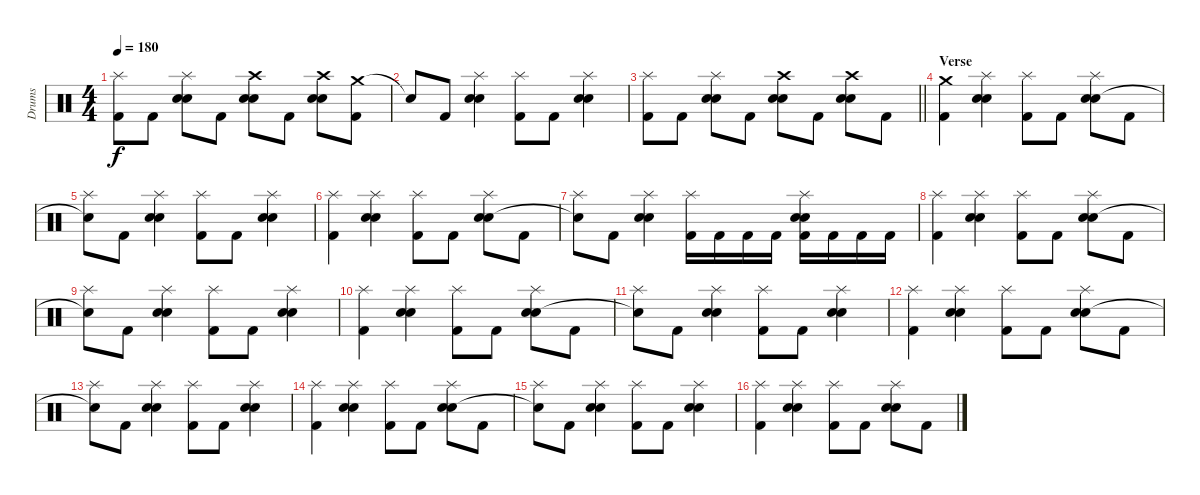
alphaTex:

\track ("Drums" "Drums") {instrument percussion}
\staff {score}
\articulation defaults
\ts (4 4)
\tempo 180
\clef neutral
\ks c
("Splash (hit)" "Kick (hit) 2").8{dy f} "Kick (hit) 2".8 ("Splash (hit)" "Electric Snare (hit)" "Snare (hit) 2").8 "Kick (hit) 2".8 ("Crash high (hit)" "Electric Snare (hit)" "Snare (hit) 2").8 "Kick (hit) 2".8 ("Crash high (hit)" "Electric Snare (hit)" "Snare (hit) 2").8 ("Crash medium (hit)" "Kick (hit) 2").8 |
"Snare (hit)"{t}.8 "Kick (hit) 2".8 ("Splash (hit)" "Electric Snare (hit)" "Snare (hit) 2").4 ("Splash (hit)" "Kick (hit) 2").8 "Kick (hit) 2".8 ("Splash (hit)" "Electric Snare (hit)" "Snare (hit) 2").4 |
\barLineRight lightlight
("Splash (hit)" "Kick (hit) 2").8 "Kick (hit) 2".8 ("Splash (hit)" "Electric Snare (hit)" "Snare (hit) 2").8 "Kick (hit) 2".8 ("Crash high (hit)" "Electric Snare (hit)" "Snare (hit) 2").8 "Kick (hit) 2".8 ("Crash high (hit)" "Electric Snare (hit)" "Snare (hit) 2").8 "Kick (hit) 2".8 |
\section ("" "Verse")
("Crash medium (hit)" "Kick (hit) 2").4 ("Splash (hit)" "Electric Snare (hit)" "Snare (hit) 2").4 ("Splash (hit)" "Kick (hit) 2").8 "Kick (hit) 2".8 ("Splash (hit)" "Electric Snare (hit)" "Snare (hit) 2").8 "Kick (hit) 2".8 |
("Splash (hit)" "Snare (hit)"{t}).8 "Kick (hit) 2".8 ("Splash (hit)" "Electric Snare (hit)" "Snare (hit) 2").4 ("Splash (hit)" "Kick (hit) 2").8 "Kick (hit) 2".8 ("Splash (hit)" "Electric Snare (hit)" "Snare (hit) 2").4 |
("Splash (hit)" "Kick (hit) 2").4 ("Splash (hit)" "Electric Snare (hit)" "Snare (hit) 2").4 ("Splash (hit)" "Kick (hit) 2").8 "Kick (hit) 2".8 ("Splash (hit)" "Electric Snare (hit)" "Snare (hit) 2").8 "Kick (hit) 2".8 |
("Splash (hit)" "Snare (hit)"{t}).8 "Kick (hit) 2".8 ("Splash (hit)" "Electric Snare (hit)" "Snare (hit) 2").4 ("Splash (hit)" "Kick (hit) 2").16 "Kick (hit) 2".16 "Kick (hit) 2".16 "Kick (hit) 2".16 ("Splash (hit)" "Electric Snare (hit)" "Snare (hit) 2" "Kick (hit) 2").16 "Kick (hit) 2".16 "Kick (hit) 2".16 "Kick (hit) 2".16 |
("Splash (hit)" "Kick (hit) 2").4 ("Splash (hit)" "Electric Snare (hit)" "Snare (hit) 2").4 ("Splash (hit)" "Kick (hit) 2").8 "Kick (hit) 2".8 ("Splash (hit)" "Electric Snare (hit)" "Snare (hit) 2").8 "Kick (hit) 2".8 |
("Splash (hit)" "Snare (hit)"{t}).8 "Kick (hit) 2".8 ("Splash (hit)" "Electric Snare (hit)" "Snare (hit) 2").4 ("Splash (hit)" "Kick (hit) 2").8 "Kick (hit) 2".8 ("Splash (hit)" "Electric Snare (hit)" "Snare (hit) 2").4 |
("Splash (hit)" "Kick (hit) 2").4 ("Splash (hit)" "Electric Snare (hit)" "Snare (hit) 2").4 ("Splash (hit)" "Kick (hit) 2").8 "Kick (hit) 2".8 ("Splash (hit)" "Electric Snare (hit)" "Snare (hit) 2").8 "Kick (hit) 2".8 |
("Splash (hit)" "Snare (hit)"{t}).8 "Kick (hit) 2".8 ("Splash (hit)" "Electric Snare (hit)" "Snare (hit) 2").4 ("Splash (hit)" "Kick (hit) 2").8 "Kick (hit) 2".8 ("Splash (hit)" "Electric Snare (hit)" "Snare (hit) 2").4 |
("Splash (hit)" "Kick (hit) 2").4 ("Splash (hit)" "Electric Snare (hit)" "Snare (hit) 2").4 ("Splash (hit)" "Kick (hit) 2").8 "Kick (hit) 2".8 ("Splash (hit)" "Electric Snare (hit)" "Snare (hit) 2").8 "Kick (hit) 2".8 |
("Splash (hit)" "Snare (hit)"{t}).8 "Kick (hit) 2".8 ("Splash (hit)" "Electric Snare (hit)" "Snare (hit) 2").4 ("Splash (hit)" "Kick (hit) 2").8 "Kick (hit) 2".8 ("Splash (hit)" "Electric Snare (hit)" "Snare (hit) 2").4 |
("Splash (hit)" "Kick (hit) 2").4 ("Splash (hit)" "Electric Snare (hit)" "Snare (hit) 2").4 ("Splash (hit)" "Kick (hit) 2").8 "Kick (hit) 2".8 ("Splash (hit)" "Electric Snare (hit)" "Snare (hit) 2").8 "Kick (hit) 2".8 |
("Splash (hit)" "Snare (hit)"{t}).8 "Kick (hit) 2".8 ("Splash (hit)" "Electric Snare (hit)" "Snare (hit) 2").4 ("Splash (hit)" "Kick (hit) 2").8 "Kick (hit) 2".8 ("Splash (hit)" "Electric Snare (hit)" "Snare (hit) 2").4 |
("Splash (hit)" "Kick (hit) 2").4 ("Splash (hit)" "Electric Snare (hit)" "Snare (hit) 2").4 ("Splash (hit)" "Kick (hit) 2").8 "Kick (hit) 2".8 ("Splash (hit)" "Electric Snare (hit)" "Snare (hit) 2").8 "Kick (hit) 2".8
